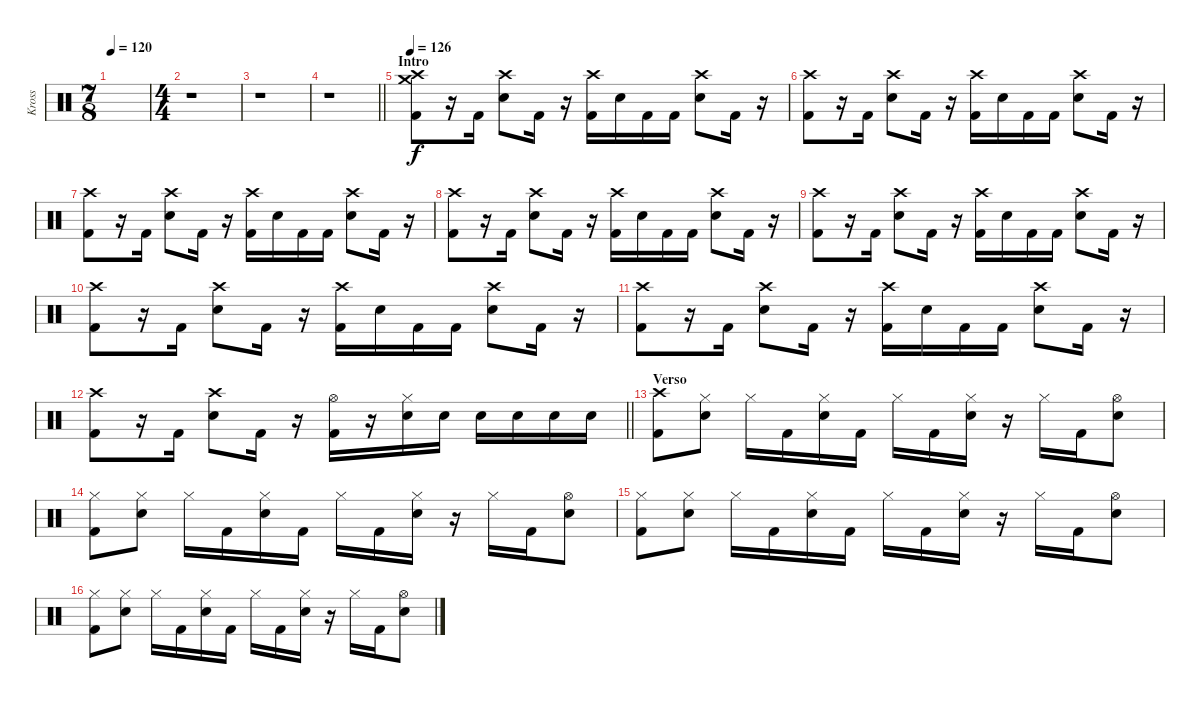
\track ("Kross" "Kross") {instrument percussion}
\staff {score}
\articulation defaults
\ts (7 8)
\tempo 120
\clef neutral
\ks c
|
\ts (4 4)
r.1 |
r.1 |
\barLineRight lightlight
r.1 |
\section ("" "Intro")
\tempo 126
("Crash high (hit)" "Crash medium (hit)" "Kick (hit) 2").8 r.16 "Kick (hit) 2".16 ("Crash high (hit)" "Electric Snare (hit)").8 "Kick (hit) 2".16 r.16 ("Crash high (hit)" "Kick (hit) 2").16 "Electric Snare (hit)".16 "Kick (hit) 2".16 "Kick (hit) 2".16 ("Crash high (hit)" "Electric Snare (hit)").8 "Kick (hit) 2".16 r.16 |
("Crash high (hit)" "Kick (hit) 2").8 r.16 "Kick (hit) 2".16 ("Crash high (hit)" "Electric Snare (hit)").8 "Kick (hit) 2".16 r.16 ("Crash high (hit)" "Kick (hit) 2").16 "Electric Snare (hit)".16 "Kick (hit) 2".16 "Kick (hit) 2".16 ("Crash high (hit)" "Electric Snare (hit)").8 "Kick (hit) 2".16 r.16 |
("Crash high (hit)" "Kick (hit) 2").8 r.16 "Kick (hit) 2".16 ("Crash high (hit)" "Electric Snare (hit)").8 "Kick (hit) 2".16 r.16 ("Crash high (hit)" "Kick (hit) 2").16 "Electric Snare (hit)".16 "Kick (hit) 2".16 "Kick (hit) 2".16 ("Crash high (hit)" "Electric Snare (hit)").8 "Kick (hit) 2".16 r.16 |
("Crash high (hit)" "Kick (hit) 2").8 r.16 "Kick (hit) 2".16 ("Crash high (hit)" "Electric Snare (hit)").8 "Kick (hit) 2".16 r.16 ("Crash high (hit)" "Kick (hit) 2").16 "Electric Snare (hit)".16 "Kick (hit) 2".16 "Kick (hit) 2".16 ("Crash high (hit)" "Electric Snare (hit)").8 "Kick (hit) 2".16 r.16 |
("Crash high (hit)" "Kick (hit) 2").8 r.16 "Kick (hit) 2".16 ("Crash high (hit)" "Electric Snare (hit)").8 "Kick (hit) 2".16 r.16 ("Crash high (hit)" "Kick (hit) 2").16 "Electric Snare (hit)".16 "Kick (hit) 2".16 "Kick (hit) 2".16 ("Crash high (hit)" "Electric Snare (hit)").8 "Kick (hit) 2".16 r.16 |
("Crash high (hit)" "Kick (hit) 2").8 r.16 "Kick (hit) 2".16 ("Crash high (hit)" "Electric Snare (hit)").8 "Kick (hit) 2".16 r.16 ("Crash high (hit)" "Kick (hit) 2").16 "Electric Snare (hit)".16 "Kick (hit) 2".16 "Kick (hit) 2".16 ("Crash high (hit)" "Electric Snare (hit)").8 "Kick (hit) 2".16 r.16 |
("Crash high (hit)" "Kick (hit) 2").8 r.16 "Kick (hit) 2".16 ("Crash high (hit)" "Electric Snare (hit)").8 "Kick (hit) 2".16 r.16 ("Crash high (hit)" "Kick (hit) 2").16 "Electric Snare (hit)".16 "Kick (hit) 2".16 "Kick (hit) 2".16 ("Crash high (hit)" "Electric Snare (hit)").8 "Kick (hit) 2".16 r.16 |
\barLineRight lightlight
("Crash high (hit)" "Kick (hit) 2").8 r.16 "Kick (hit) 2".16 ("Crash high (hit)" "Electric Snare (hit)").8 "Kick (hit) 2".16 r.16 ("Hi-Hat (open)" "Kick (hit) 2").16 r.16 ("Hi-Hat (closed)" "Electric Snare (hit)").16 "Electric Snare (hit)".16 "Electric Snare (hit)".16 "Electric Snare (hit)".16 "Electric Snare (hit)".16 "Electric Snare (hit)".16 |
\section ("" "Verso")
("Crash high (hit)" "Kick (hit) 2").8 ("Hi-Hat (closed)" "Electric Snare (hit)").8 "Hi-Hat (closed)".16 "Kick (hit) 2".16 ("Hi-Hat (closed)" "Electric Snare (hit)").16 "Kick (hit) 2".16 "Hi-Hat (closed)".16 "Kick (hit) 2".16 ("Hi-Hat (closed)" "Electric Snare (hit)").16 r.16 "Hi-Hat (closed)".16 "Kick (hit) 2".16 ("Hi-Hat (open)" "Electric Snare (hit)").8 |
("Hi-Hat (closed)" "Kick (hit) 2").8 ("Hi-Hat (closed)" "Electric Snare (hit)").8 "Hi-Hat (closed)".16 "Kick (hit) 2".16 ("Hi-Hat (closed)" "Electric Snare (hit)").16 "Kick (hit) 2".16 "Hi-Hat (closed)".16 "Kick (hit) 2".16 ("Hi-Hat (closed)" "Electric Snare (hit)").16 r.16 "Hi-Hat (closed)".16 "Kick (hit) 2".16 ("Hi-Hat (open)" "Electric Snare (hit)").8 |
("Hi-Hat (closed)" "Kick (hit) 2").8 ("Hi-Hat (closed)" "Electric Snare (hit)").8 "Hi-Hat (closed)".16 "Kick (hit) 2".16 ("Hi-Hat (closed)" "Electric Snare (hit)").16 "Kick (hit) 2".16 "Hi-Hat (closed)".16 "Kick (hit) 2".16 ("Hi-Hat (closed)" "Electric Snare (hit)").16 r.16 "Hi-Hat (closed)".16 "Kick (hit) 2".16 ("Hi-Hat (open)" "Electric Snare (hit)").8 |
("Hi-Hat (closed)" "Kick (hit) 2").8 ("Hi-Hat (closed)" "Electric Snare (hit)").8 "Hi-Hat (closed)".16 "Kick (hit) 2".16 ("Hi-Hat (closed)" "Electric Snare (hit)").16 "Kick (hit) 2".16 "Hi-Hat (closed)".16 "Kick (hit) 2".16 ("Hi-Hat (closed)" "Electric Snare (hit)").16 r.16 "Hi-Hat (closed)".16 "Kick (hit) 2".16 ("Hi-Hat (open)" "Electric Snare (hit)").8
